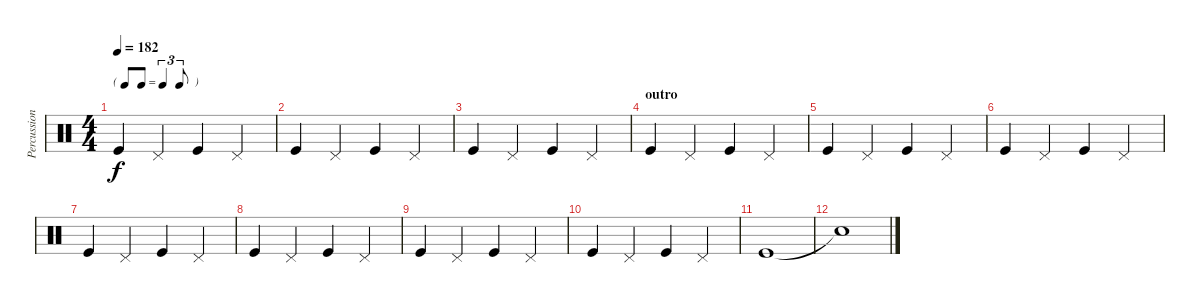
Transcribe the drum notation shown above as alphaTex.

\track ("Percussions" "Percussion") {instrument percussion}
\staff {score}
\articulation defaults
\ts (4 4)
\tf triplet8th
\tempo 182
\clef neutral
\ks c "Kick (hit)".4{dy f} "Pedal Hi-Hat (hit)".4 "Kick (hit)".4 "Pedal Hi-Hat (hit)".4
|
"Kick (hit)".4 "Pedal Hi-Hat (hit)".4 "Kick (hit)".4 "Pedal Hi-Hat (hit)".4 |
"Kick (hit)".4 "Pedal Hi-Hat (hit)".4 "Kick (hit)".4 "Pedal Hi-Hat (hit)".4 |
\section ("" "outro")
"Kick (hit)".4 "Pedal Hi-Hat (hit)".4 "Kick (hit)".4 "Pedal Hi-Hat (hit)".4 |
"Kick (hit)".4 "Pedal Hi-Hat (hit)".4 "Kick (hit)".4 "Pedal Hi-Hat (hit)".4 |
"Kick (hit)".4 "Pedal Hi-Hat (hit)".4 "Kick (hit)".4 "Pedal Hi-Hat (hit)".4 |
"Kick (hit)".4 "Pedal Hi-Hat (hit)".4 "Kick (hit)".4 "Pedal Hi-Hat (hit)".4 |
"Kick (hit)".4 "Pedal Hi-Hat (hit)".4 "Kick (hit)".4 "Pedal Hi-Hat (hit)".4 |
"Kick (hit)".4 "Pedal Hi-Hat (hit)".4 "Kick (hit)".4 "Pedal Hi-Hat (hit)".4 |
"Kick (hit)".4 "Pedal Hi-Hat (hit)".4 "Kick (hit)".4 "Pedal Hi-Hat (hit)".4 |
"Kick (hit)".1 |
"Snare (hit)"{t}.1
